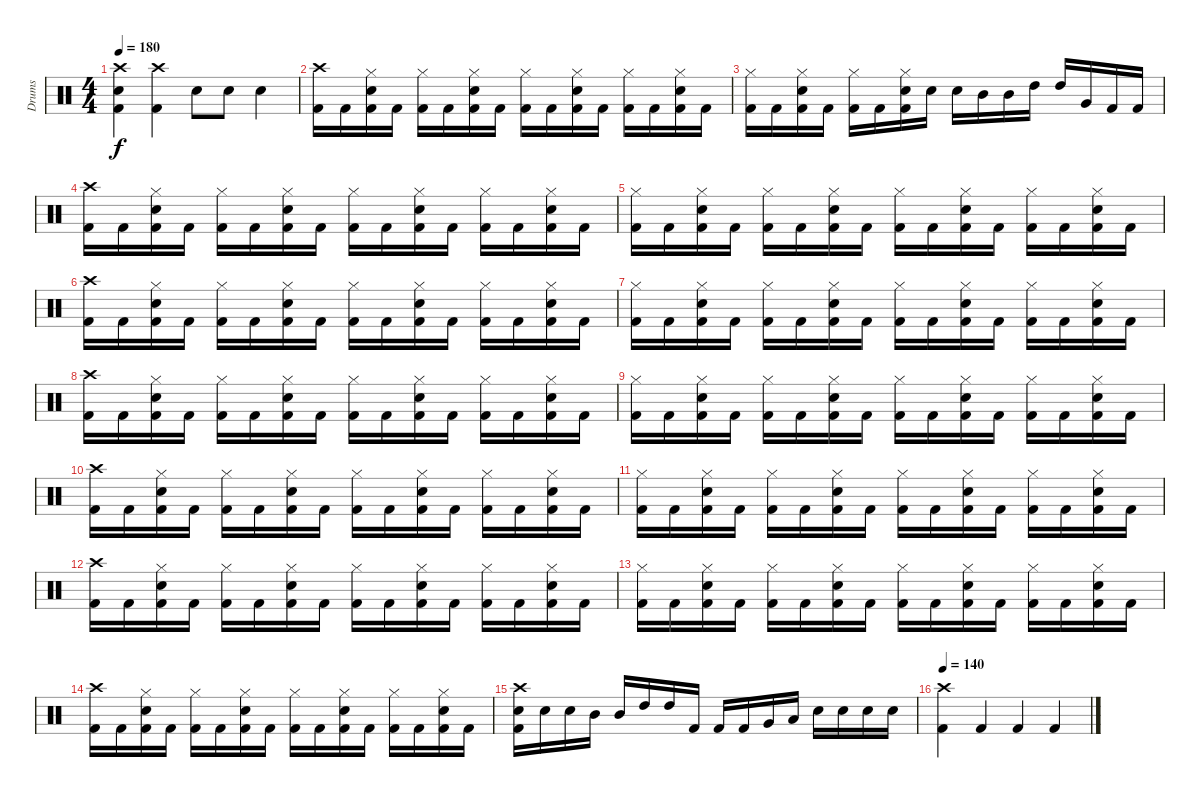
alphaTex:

\track ("Drums" "Drums") {instrument percussion}
\staff {score}
\articulation defaults
\ts (4 4)
\tempo 180
\clef neutral
\ks c
("Crash high (hit)" "Electric Snare (hit)" "Kick (hit) 2").4{dy f} ("Crash high (hit)" "Kick (hit) 2").4 "Electric Snare (hit)".8 "Electric Snare (hit)".8 "Electric Snare (hit)".4 |
("Crash high (hit)" "Kick (hit) 2").16 "Kick (hit) 2".16 ("Hi-Hat (closed)" "Electric Snare (hit)" "Kick (hit) 2").16 "Kick (hit) 2".16 ("Hi-Hat (closed)" "Kick (hit) 2").16 "Kick (hit) 2".16 ("Hi-Hat (closed)" "Electric Snare (hit)" "Kick (hit) 2").16 "Kick (hit) 2".16 ("Hi-Hat (closed)" "Kick (hit) 2").16 "Kick (hit) 2".16 ("Hi-Hat (closed)" "Electric Snare (hit)" "Kick (hit) 2").16 "Kick (hit) 2".16 ("Hi-Hat (closed)" "Kick (hit) 2").16 "Kick (hit) 2".16 ("Hi-Hat (closed)" "Electric Snare (hit)" "Kick (hit) 2").16 "Kick (hit) 2".16 |
("Hi-Hat (closed)" "Kick (hit) 2").16 "Kick (hit) 2".16 ("Hi-Hat (closed)" "Electric Snare (hit)" "Kick (hit) 2").16 "Kick (hit) 2".16 ("Hi-Hat (closed)" "Kick (hit) 2").16 "Kick (hit) 2".16 ("Hi-Hat (closed)" "Electric Snare (hit)" "Kick (hit) 2").16 "Electric Snare (hit)".16 "Electric Snare (hit)".16 "Mid Tom (hit)".16 "Mid Tom (hit)".16 "High Tom (hit)".16 "High Tom (hit)".16 "Very Low Tom (hit)".16 "Kick (hit) 2".16 "Kick (hit) 2".16 |
("Crash high (hit)" "Kick (hit) 2").16 "Kick (hit) 2".16 ("Hi-Hat (closed)" "Electric Snare (hit)" "Kick (hit) 2").16 "Kick (hit) 2".16 ("Hi-Hat (closed)" "Kick (hit) 2").16 "Kick (hit) 2".16 ("Hi-Hat (closed)" "Electric Snare (hit)" "Kick (hit) 2").16 "Kick (hit) 2".16 ("Hi-Hat (closed)" "Kick (hit) 2").16 "Kick (hit) 2".16 ("Hi-Hat (closed)" "Electric Snare (hit)" "Kick (hit) 2").16 "Kick (hit) 2".16 ("Hi-Hat (closed)" "Kick (hit) 2").16 "Kick (hit) 2".16 ("Hi-Hat (closed)" "Electric Snare (hit)" "Kick (hit) 2").16 "Kick (hit) 2".16 |
("Hi-Hat (closed)" "Kick (hit) 2").16 "Kick (hit) 2".16 ("Hi-Hat (closed)" "Electric Snare (hit)" "Kick (hit) 2").16 "Kick (hit) 2".16 ("Hi-Hat (closed)" "Kick (hit) 2").16 "Kick (hit) 2".16 ("Hi-Hat (closed)" "Electric Snare (hit)" "Kick (hit) 2").16 "Kick (hit) 2".16 ("Hi-Hat (closed)" "Kick (hit) 2").16 "Kick (hit) 2".16 ("Hi-Hat (closed)" "Electric Snare (hit)" "Kick (hit) 2").16 "Kick (hit) 2".16 ("Hi-Hat (closed)" "Kick (hit) 2").16 "Kick (hit) 2".16 ("Hi-Hat (closed)" "Electric Snare (hit)" "Kick (hit) 2").16 "Kick (hit) 2".16 |
("Crash high (hit)" "Kick (hit) 2").16 "Kick (hit) 2".16 ("Hi-Hat (closed)" "Electric Snare (hit)" "Kick (hit) 2").16 "Kick (hit) 2".16 ("Hi-Hat (closed)" "Kick (hit) 2").16 "Kick (hit) 2".16 ("Hi-Hat (closed)" "Electric Snare (hit)" "Kick (hit) 2").16 "Kick (hit) 2".16 ("Hi-Hat (closed)" "Kick (hit) 2").16 "Kick (hit) 2".16 ("Hi-Hat (closed)" "Electric Snare (hit)" "Kick (hit) 2").16 "Kick (hit) 2".16 ("Hi-Hat (closed)" "Kick (hit) 2").16 "Kick (hit) 2".16 ("Hi-Hat (closed)" "Electric Snare (hit)" "Kick (hit) 2").16 "Kick (hit) 2".16 |
("Hi-Hat (closed)" "Kick (hit) 2").16 "Kick (hit) 2".16 ("Hi-Hat (closed)" "Electric Snare (hit)" "Kick (hit) 2").16 "Kick (hit) 2".16 ("Hi-Hat (closed)" "Kick (hit) 2").16 "Kick (hit) 2".16 ("Hi-Hat (closed)" "Electric Snare (hit)" "Kick (hit) 2").16 "Kick (hit) 2".16 ("Hi-Hat (closed)" "Kick (hit) 2").16 "Kick (hit) 2".16 ("Hi-Hat (closed)" "Electric Snare (hit)" "Kick (hit) 2").16 "Kick (hit) 2".16 ("Hi-Hat (closed)" "Kick (hit) 2").16 "Kick (hit) 2".16 ("Hi-Hat (closed)" "Electric Snare (hit)" "Kick (hit) 2").16 "Kick (hit) 2".16 |
("Crash high (hit)" "Kick (hit) 2").16 "Kick (hit) 2".16 ("Hi-Hat (closed)" "Electric Snare (hit)" "Kick (hit) 2").16 "Kick (hit) 2".16 ("Hi-Hat (closed)" "Kick (hit) 2").16 "Kick (hit) 2".16 ("Hi-Hat (closed)" "Electric Snare (hit)" "Kick (hit) 2").16 "Kick (hit) 2".16 ("Hi-Hat (closed)" "Kick (hit) 2").16 "Kick (hit) 2".16 ("Hi-Hat (closed)" "Electric Snare (hit)" "Kick (hit) 2").16 "Kick (hit) 2".16 ("Hi-Hat (closed)" "Kick (hit) 2").16 "Kick (hit) 2".16 ("Hi-Hat (closed)" "Electric Snare (hit)" "Kick (hit) 2").16 "Kick (hit) 2".16 |
("Hi-Hat (closed)" "Kick (hit) 2").16 "Kick (hit) 2".16 ("Hi-Hat (closed)" "Electric Snare (hit)" "Kick (hit) 2").16 "Kick (hit) 2".16 ("Hi-Hat (closed)" "Kick (hit) 2").16 "Kick (hit) 2".16 ("Hi-Hat (closed)" "Electric Snare (hit)" "Kick (hit) 2").16 "Kick (hit) 2".16 ("Hi-Hat (closed)" "Kick (hit) 2").16 "Kick (hit) 2".16 ("Hi-Hat (closed)" "Electric Snare (hit)" "Kick (hit) 2").16 "Kick (hit) 2".16 ("Hi-Hat (closed)" "Kick (hit) 2").16 "Kick (hit) 2".16 ("Hi-Hat (closed)" "Electric Snare (hit)" "Kick (hit) 2").16 "Kick (hit) 2".16 |
("Crash high (hit)" "Kick (hit) 2").16 "Kick (hit) 2".16 ("Hi-Hat (closed)" "Electric Snare (hit)" "Kick (hit) 2").16 "Kick (hit) 2".16 ("Hi-Hat (closed)" "Kick (hit) 2").16 "Kick (hit) 2".16 ("Hi-Hat (closed)" "Electric Snare (hit)" "Kick (hit) 2").16 "Kick (hit) 2".16 ("Hi-Hat (closed)" "Kick (hit) 2").16 "Kick (hit) 2".16 ("Hi-Hat (closed)" "Electric Snare (hit)" "Kick (hit) 2").16 "Kick (hit) 2".16 ("Hi-Hat (closed)" "Kick (hit) 2").16 "Kick (hit) 2".16 ("Hi-Hat (closed)" "Electric Snare (hit)" "Kick (hit) 2").16 "Kick (hit) 2".16 |
("Hi-Hat (closed)" "Kick (hit) 2").16 "Kick (hit) 2".16 ("Hi-Hat (closed)" "Electric Snare (hit)" "Kick (hit) 2").16 "Kick (hit) 2".16 ("Hi-Hat (closed)" "Kick (hit) 2").16 "Kick (hit) 2".16 ("Hi-Hat (closed)" "Electric Snare (hit)" "Kick (hit) 2").16 "Kick (hit) 2".16 ("Hi-Hat (closed)" "Kick (hit) 2").16 "Kick (hit) 2".16 ("Hi-Hat (closed)" "Electric Snare (hit)" "Kick (hit) 2").16 "Kick (hit) 2".16 ("Hi-Hat (closed)" "Kick (hit) 2").16 "Kick (hit) 2".16 ("Hi-Hat (closed)" "Electric Snare (hit)" "Kick (hit) 2").16 "Kick (hit) 2".16 |
("Crash high (hit)" "Kick (hit) 2").16 "Kick (hit) 2".16 ("Hi-Hat (closed)" "Electric Snare (hit)" "Kick (hit) 2").16 "Kick (hit) 2".16 ("Hi-Hat (closed)" "Kick (hit) 2").16 "Kick (hit) 2".16 ("Hi-Hat (closed)" "Electric Snare (hit)" "Kick (hit) 2").16 "Kick (hit) 2".16 ("Hi-Hat (closed)" "Kick (hit) 2").16 "Kick (hit) 2".16 ("Hi-Hat (closed)" "Electric Snare (hit)" "Kick (hit) 2").16 "Kick (hit) 2".16 ("Hi-Hat (closed)" "Kick (hit) 2").16 "Kick (hit) 2".16 ("Hi-Hat (closed)" "Electric Snare (hit)" "Kick (hit) 2").16 "Kick (hit) 2".16 |
("Hi-Hat (closed)" "Kick (hit) 2").16 "Kick (hit) 2".16 ("Hi-Hat (closed)" "Electric Snare (hit)" "Kick (hit) 2").16 "Kick (hit) 2".16 ("Hi-Hat (closed)" "Kick (hit) 2").16 "Kick (hit) 2".16 ("Hi-Hat (closed)" "Electric Snare (hit)" "Kick (hit) 2").16 "Kick (hit) 2".16 ("Hi-Hat (closed)" "Kick (hit) 2").16 "Kick (hit) 2".16 ("Hi-Hat (closed)" "Electric Snare (hit)" "Kick (hit) 2").16 "Kick (hit) 2".16 ("Hi-Hat (closed)" "Kick (hit) 2").16 "Kick (hit) 2".16 ("Hi-Hat (closed)" "Electric Snare (hit)" "Kick (hit) 2").16 "Kick (hit) 2".16 |
("Crash high (hit)" "Kick (hit) 2").16 "Kick (hit) 2".16 ("Hi-Hat (closed)" "Electric Snare (hit)" "Kick (hit) 2").16 "Kick (hit) 2".16 ("Hi-Hat (closed)" "Kick (hit) 2").16 "Kick (hit) 2".16 ("Hi-Hat (closed)" "Electric Snare (hit)" "Kick (hit) 2").16 "Kick (hit) 2".16 ("Hi-Hat (closed)" "Kick (hit) 2").16 "Kick (hit) 2".16 ("Hi-Hat (closed)" "Electric Snare (hit)" "Kick (hit) 2").16 "Kick (hit) 2".16 ("Hi-Hat (closed)" "Kick (hit) 2").16 "Kick (hit) 2".16 ("Hi-Hat (closed)" "Electric Snare (hit)" "Kick (hit) 2").16 "Kick (hit) 2".16 |
("Crash high (hit)" "Electric Snare (hit)" "Kick (hit) 2").16 "Electric Snare (hit)".16 "Electric Snare (hit)".16 "Mid Tom (hit)".16 "Mid Tom (hit)".16 "High Tom (hit)".16 "High Tom (hit)".16 "Kick (hit) 2".16 "Kick (hit) 2".16 "Kick (hit) 2".16 "Very Low Tom (hit)".16 "Low Floor Tom (hit)".16 "Electric Snare (hit)".16 "Electric Snare (hit)".16 "Electric Snare (hit)".16 "Electric Snare (hit)".16 |
\tempo 140
("Crash high (hit)" "Kick (hit) 2").4 "Kick (hit) 2".4 "Kick (hit) 2".4 "Kick (hit) 2".4
